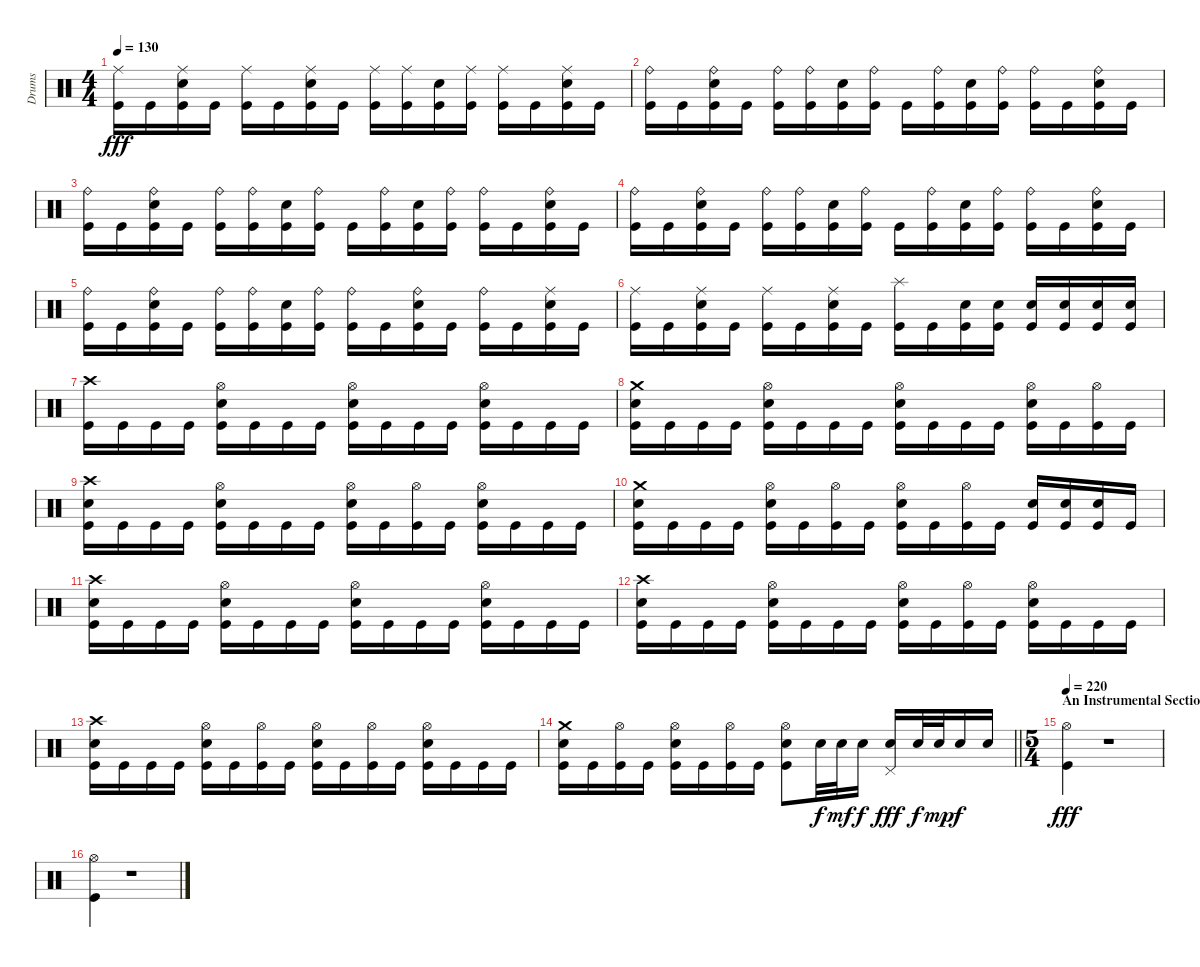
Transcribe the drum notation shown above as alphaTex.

\track ("Drums" "Drums") {instrument percussion}
\staff {score}
\articulation defaults
\ts (4 4)
\tempo 130
\clef neutral
\ks c
("Ride (middle)" "Kick (hit)").16{dy fff} "Kick (hit)".16 ("Ride (middle)" "Electric Snare (hit)" "Kick (hit)").16 "Kick (hit)".16 ("Ride (middle)" "Kick (hit)").16 "Kick (hit)".16 ("Ride (middle)" "Electric Snare (hit)" "Kick (hit)").16 "Kick (hit)".16 ("Ride (middle)" "Kick (hit)").16 ("Ride (middle)" "Kick (hit)").16 ("Electric Snare (hit)" "Kick (hit)").16 ("Ride (middle)" "Kick (hit)").16 ("Ride (middle)" "Kick (hit)").16 "Kick (hit)".16 ("Ride (middle)" "Electric Snare (hit)" "Kick (hit)").16 "Kick (hit)".16 |
("Ride (bell)" "Kick (hit)").16 "Kick (hit)".16 ("Ride (bell)" "Electric Snare (hit)" "Kick (hit)").16 "Kick (hit)".16 ("Ride (bell)" "Kick (hit)").16 ("Ride (bell)" "Kick (hit)").16 ("Electric Snare (hit)" "Kick (hit)").16 ("Ride (bell)" "Kick (hit)").16 "Kick (hit)".16 ("Ride (bell)" "Kick (hit)").16 ("Electric Snare (hit)" "Kick (hit)").16 ("Ride (bell)" "Kick (hit)").16 ("Ride (bell)" "Kick (hit)").16 "Kick (hit)".16 ("Ride (bell)" "Electric Snare (hit)" "Kick (hit)").16 "Kick (hit)".16 |
("Ride (bell)" "Kick (hit)").16 "Kick (hit)".16 ("Ride (bell)" "Electric Snare (hit)" "Kick (hit)").16 "Kick (hit)".16 ("Ride (bell)" "Kick (hit)").16 ("Ride (bell)" "Kick (hit)").16 ("Electric Snare (hit)" "Kick (hit)").16 ("Ride (bell)" "Kick (hit)").16 "Kick (hit)".16 ("Ride (bell)" "Kick (hit)").16 ("Electric Snare (hit)" "Kick (hit)").16 ("Ride (bell)" "Kick (hit)").16 ("Ride (bell)" "Kick (hit)").16 "Kick (hit)".16 ("Ride (bell)" "Electric Snare (hit)" "Kick (hit)").16 "Kick (hit)".16 |
("Ride (bell)" "Kick (hit)").16 "Kick (hit)".16 ("Ride (bell)" "Electric Snare (hit)" "Kick (hit)").16 "Kick (hit)".16 ("Ride (bell)" "Kick (hit)").16 ("Ride (bell)" "Kick (hit)").16 ("Electric Snare (hit)" "Kick (hit)").16 ("Ride (bell)" "Kick (hit)").16 "Kick (hit)".16 ("Ride (bell)" "Kick (hit)").16 ("Electric Snare (hit)" "Kick (hit)").16 ("Ride (bell)" "Kick (hit)").16 ("Ride (bell)" "Kick (hit)").16 "Kick (hit)".16 ("Ride (bell)" "Electric Snare (hit)" "Kick (hit)").16 "Kick (hit)".16 |
("Ride (bell)" "Kick (hit)").16 "Kick (hit)".16 ("Ride (bell)" "Electric Snare (hit)" "Kick (hit)").16 "Kick (hit)".16 ("Ride (bell)" "Kick (hit)").16 ("Ride (bell)" "Kick (hit)").16 ("Electric Snare (hit)" "Kick (hit)").16 ("Ride (bell)" "Kick (hit)").16 ("Ride (bell)" "Kick (hit)").16 "Kick (hit)".16 ("Ride (bell)" "Electric Snare (hit)" "Kick (hit)").16 "Kick (hit)".16 ("Ride (bell)" "Kick (hit)").16 "Kick (hit)".16 ("Ride (middle)" "Electric Snare (hit)" "Kick (hit)").16 "Kick (hit)".16 |
("Ride (middle)" "Kick (hit)").16 "Kick (hit)".16 ("Ride (middle)" "Electric Snare (hit)" "Kick (hit)").16 "Kick (hit)".16 ("Ride (middle)" "Kick (hit)").16 "Kick (hit)".16 ("Ride (middle)" "Electric Snare (hit)" "Kick (hit)").16 "Kick (hit)".16 ("Splash (hit)" "Kick (hit)").16 "Kick (hit)".16 ("Electric Snare (hit)" "Kick (hit)").16 ("Electric Snare (hit)" "Kick (hit)").16 ("Electric Snare (hit)" "Kick (hit)").16 ("Electric Snare (hit)" "Kick (hit)").16 ("Electric Snare (hit)" "Kick (hit)").16 ("Electric Snare (hit)" "Kick (hit)").16 |
("Crash high (hit)" "Kick (hit)").16 "Kick (hit)".16 "Kick (hit)".16 "Kick (hit)".16 ("Hi-Hat (open)" "Electric Snare (hit)" "Kick (hit)").16 "Kick (hit)".16 "Kick (hit)".16 "Kick (hit)".16 ("Hi-Hat (open)" "Electric Snare (hit)" "Kick (hit)").16 "Kick (hit)".16 "Kick (hit)".16 "Kick (hit)".16 ("Hi-Hat (open)" "Electric Snare (hit)" "Kick (hit)").16 "Kick (hit)".16 "Kick (hit)".16 "Kick (hit)".16 |
("Crash medium (hit)" "Electric Snare (hit)" "Kick (hit)").16 "Kick (hit)".16 "Kick (hit)".16 "Kick (hit)".16 ("Hi-Hat (open)" "Electric Snare (hit)" "Kick (hit)").16 "Kick (hit)".16 "Kick (hit)".16 "Kick (hit)".16 ("Hi-Hat (open)" "Electric Snare (hit)" "Kick (hit)").16 "Kick (hit)".16 "Kick (hit)".16 "Kick (hit)".16 ("Hi-Hat (open)" "Electric Snare (hit)" "Kick (hit)").16 "Kick (hit)".16 ("Hi-Hat (open)" "Kick (hit)").16 "Kick (hit)".16 |
("Crash high (hit)" "Electric Snare (hit)" "Kick (hit)").16 "Kick (hit)".16 "Kick (hit)".16 "Kick (hit)".16 ("Hi-Hat (open)" "Electric Snare (hit)" "Kick (hit)").16 "Kick (hit)".16 "Kick (hit)".16 "Kick (hit)".16 ("Hi-Hat (open)" "Electric Snare (hit)" "Kick (hit)").16 "Kick (hit)".16 ("Hi-Hat (open)" "Kick (hit)").16 "Kick (hit)".16 ("Hi-Hat (open)" "Electric Snare (hit)" "Kick (hit)").16 "Kick (hit)".16 "Kick (hit)".16 "Kick (hit)".16 |
("Crash medium (hit)" "Electric Snare (hit)" "Kick (hit)").16 "Kick (hit)".16 "Kick (hit)".16 "Kick (hit)".16 ("Hi-Hat (open)" "Electric Snare (hit)" "Kick (hit)").16 "Kick (hit)".16 ("Hi-Hat (open)" "Kick (hit)").16 "Kick (hit)".16 ("Hi-Hat (open)" "Electric Snare (hit)" "Kick (hit)").16 "Kick (hit)".16 ("Hi-Hat (open)" "Kick (hit)").16 "Kick (hit)".16 ("Electric Snare (hit)" "Kick (hit)").16 ("Electric Snare (hit)" "Kick (hit)").16 ("Electric Snare (hit)" "Kick (hit)").16 "Kick (hit)".16 |
("Crash high (hit)" "Electric Snare (hit)" "Kick (hit)").16 "Kick (hit)".16 "Kick (hit)".16 "Kick (hit)".16 ("Hi-Hat (open)" "Electric Snare (hit)" "Kick (hit)").16 "Kick (hit)".16 "Kick (hit)".16 "Kick (hit)".16 ("Hi-Hat (open)" "Electric Snare (hit)" "Kick (hit)").16 "Kick (hit)".16 "Kick (hit)".16 "Kick (hit)".16 ("Hi-Hat (open)" "Electric Snare (hit)" "Kick (hit)").16 "Kick (hit)".16 "Kick (hit)".16 "Kick (hit)".16 |
("Crash high (hit)" "Electric Snare (hit)" "Kick (hit)").16 "Kick (hit)".16 "Kick (hit)".16 "Kick (hit)".16 ("Hi-Hat (open)" "Electric Snare (hit)" "Kick (hit)").16 "Kick (hit)".16 "Kick (hit)".16 "Kick (hit)".16 ("Hi-Hat (open)" "Electric Snare (hit)" "Kick (hit)").16 "Kick (hit)".16 ("Hi-Hat (open)" "Kick (hit)").16 "Kick (hit)".16 ("Hi-Hat (open)" "Electric Snare (hit)" "Kick (hit)").16 "Kick (hit)".16 "Kick (hit)".16 "Kick (hit)".16 |
("Crash high (hit)" "Electric Snare (hit)" "Kick (hit)").16 "Kick (hit)".16 "Kick (hit)".16 "Kick (hit)".16 ("Hi-Hat (open)" "Electric Snare (hit)" "Kick (hit)").16 "Kick (hit)".16 ("Hi-Hat (open)" "Kick (hit)").16 "Kick (hit)".16 ("Hi-Hat (open)" "Electric Snare (hit)" "Kick (hit)").16 "Kick (hit)".16 ("Hi-Hat (open)" "Kick (hit)").16 "Kick (hit)".16 ("Hi-Hat (open)" "Electric Snare (hit)" "Kick (hit)").16 "Kick (hit)".16 "Kick (hit)".16 "Kick (hit)".16 |
\barLineRight lightlight
("Crash medium (hit)" "Electric Snare (hit)" "Kick (hit)").16 "Kick (hit)".16 ("Hi-Hat (open)" "Kick (hit)").16 "Kick (hit)".16 ("Hi-Hat (open)" "Electric Snare (hit)" "Kick (hit)").16 "Kick (hit)".16 ("Hi-Hat (open)" "Kick (hit)").16 "Kick (hit)".16 ("Hi-Hat (open)" "Electric Snare (hit)" "Kick (hit)").8 "Electric Snare (hit)".32{dy f} "Electric Snare (hit)".32{dy mf} "Electric Snare (hit)".16{dy f} ("Pedal Hi-Hat (hit)" "Electric Snare (hit)").16{dy fff} "Electric Snare (hit)".32{dy f} "Electric Snare (hit)".32{dy mp} "Electric Snare (hit)".16{dy f} "Electric Snare (hit)".16 |
\ts (5 4)
\section ("" "An Instrumental Section")
\tempo 220
("Hi-Hat (open)" "Kick (hit)").4{dy fff} r.1{volume 0} |
("Hi-Hat (open)" "Kick (hit)").4{volume 15} r.1{volume 0}
